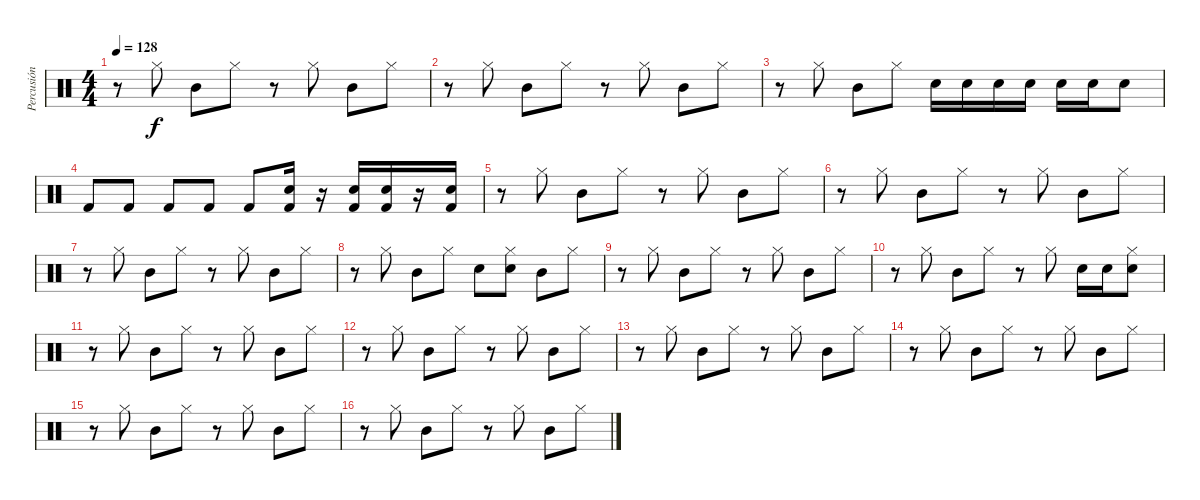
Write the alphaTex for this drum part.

\track ("Percusión" "Percusión") {instrument percussion}
\staff {score}
\articulation defaults
\ts (4 4)
\tempo 128
\clef neutral
\ks c
r.8{dy f} "Hi-Hat (closed)".8 "Mid Tom (hit)".8 "Hi-Hat (closed)".8 r.8 "Hi-Hat (closed)".8 "Mid Tom (hit)".8 "Hi-Hat (closed)".8 |
r.8 "Hi-Hat (closed)".8 "Mid Tom (hit)".8 "Hi-Hat (closed)".8 r.8 "Hi-Hat (closed)".8 "Mid Tom (hit)".8 "Hi-Hat (closed)".8 |
r.8 "Hi-Hat (closed)".8 "Mid Tom (hit)".8 "Hi-Hat (closed)".8 "Electric Snare (hit)".16 "Electric Snare (hit)".16 "Electric Snare (hit)".16 "Electric Snare (hit)".16 "Electric Snare (hit)".16 "Electric Snare (hit)".16 "Electric Snare (hit)".8 |
"Kick (hit) 2".8 "Kick (hit) 2".8 "Kick (hit) 2".8 "Kick (hit) 2".8 "Kick (hit) 2".8 ("Electric Snare (hit)" "Kick (hit) 2").16 r.16 ("Electric Snare (hit)" "Kick (hit) 2").16 ("Electric Snare (hit)" "Kick (hit) 2").16 r.16 ("Electric Snare (hit)" "Kick (hit) 2").16 |
r.8 "Hi-Hat (closed)".8 "Mid Tom (hit)".8 "Hi-Hat (closed)".8 r.8 "Hi-Hat (closed)".8 "Mid Tom (hit)".8 "Hi-Hat (closed)".8 |
r.8 "Hi-Hat (closed)".8 "Mid Tom (hit)".8 "Hi-Hat (closed)".8 r.8 "Hi-Hat (closed)".8 "Mid Tom (hit)".8 "Hi-Hat (closed)".8 |
r.8 "Hi-Hat (closed)".8 "Mid Tom (hit)".8 "Hi-Hat (closed)".8 r.8 "Hi-Hat (closed)".8 "Mid Tom (hit)".8 "Hi-Hat (closed)".8 |
r.8 "Hi-Hat (closed)".8 "Mid Tom (hit)".8 "Hi-Hat (closed)".8 "Electric Snare (hit)".8 ("Hi-Hat (closed)" "Electric Snare (hit)").8 "Mid Tom (hit)".8 "Hi-Hat (closed)".8 |
r.8 "Hi-Hat (closed)".8 "Mid Tom (hit)".8 "Hi-Hat (closed)".8 r.8 "Hi-Hat (closed)".8 "Mid Tom (hit)".8 "Hi-Hat (closed)".8 |
r.8 "Hi-Hat (closed)".8 "Mid Tom (hit)".8 "Hi-Hat (closed)".8 r.8 "Hi-Hat (closed)".8 "Electric Snare (hit)".16 "Electric Snare (hit)".16 ("Hi-Hat (closed)" "Electric Snare (hit)").8 |
r.8 "Hi-Hat (closed)".8 "Mid Tom (hit)".8 "Hi-Hat (closed)".8 r.8 "Hi-Hat (closed)".8 "Mid Tom (hit)".8 "Hi-Hat (closed)".8 |
r.8 "Hi-Hat (closed)".8 "Mid Tom (hit)".8 "Hi-Hat (closed)".8 r.8 "Hi-Hat (closed)".8 "Mid Tom (hit)".8 "Hi-Hat (closed)".8 |
r.8 "Hi-Hat (closed)".8 "Mid Tom (hit)".8 "Hi-Hat (closed)".8 r.8 "Hi-Hat (closed)".8 "Mid Tom (hit)".8 "Hi-Hat (closed)".8 |
r.8 "Hi-Hat (closed)".8 "Mid Tom (hit)".8 "Hi-Hat (closed)".8 r.8 "Hi-Hat (closed)".8 "Mid Tom (hit)".8 "Hi-Hat (closed)".8 |
r.8 "Hi-Hat (closed)".8 "Mid Tom (hit)".8 "Hi-Hat (closed)".8 r.8 "Hi-Hat (closed)".8 "Mid Tom (hit)".8 "Hi-Hat (closed)".8 |
r.8 "Hi-Hat (closed)".8 "Mid Tom (hit)".8 "Hi-Hat (closed)".8 r.8 "Hi-Hat (closed)".8 "Mid Tom (hit)".8 "Hi-Hat (closed)".8
